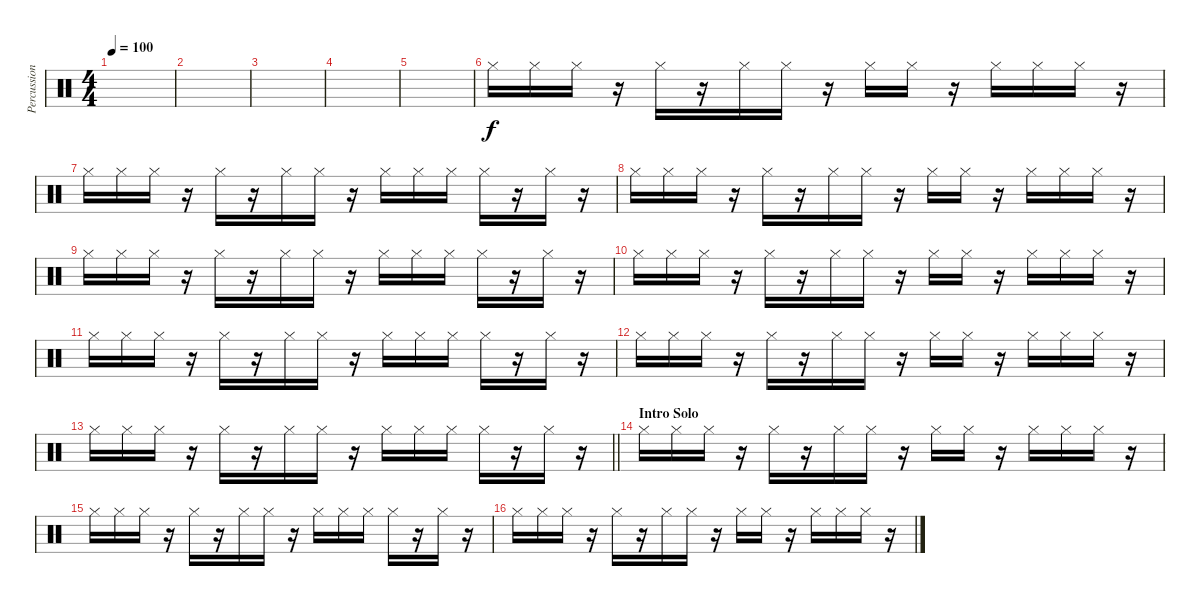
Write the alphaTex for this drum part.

\track ("Percussion" "Percussion") {instrument percussion}
\staff {score}
\articulation defaults
\ts (4 4)
\tempo 100
\clef neutral
\ks c
|
|
|
|
|
"Hi-Hat (closed)".16 "Hi-Hat (closed)".16 "Hi-Hat (closed)".16 r.16 "Hi-Hat (closed)".16 r.16 "Hi-Hat (closed)".16 "Hi-Hat (closed)".16 r.16 "Hi-Hat (closed)".16 "Hi-Hat (closed)".16 r.16 "Hi-Hat (closed)".16 "Hi-Hat (closed)".16 "Hi-Hat (closed)".16 r.16 |
"Hi-Hat (closed)".16 "Hi-Hat (closed)".16 "Hi-Hat (closed)".16 r.16 "Hi-Hat (closed)".16 r.16 "Hi-Hat (closed)".16 "Hi-Hat (closed)".16 r.16 "Hi-Hat (closed)".16 "Hi-Hat (closed)".16 "Hi-Hat (closed)".16 "Hi-Hat (closed)".16 r.16 "Hi-Hat (closed)".16 r.16 |
"Hi-Hat (closed)".16 "Hi-Hat (closed)".16 "Hi-Hat (closed)".16 r.16 "Hi-Hat (closed)".16 r.16 "Hi-Hat (closed)".16 "Hi-Hat (closed)".16 r.16 "Hi-Hat (closed)".16 "Hi-Hat (closed)".16 r.16 "Hi-Hat (closed)".16 "Hi-Hat (closed)".16 "Hi-Hat (closed)".16 r.16 |
"Hi-Hat (closed)".16 "Hi-Hat (closed)".16 "Hi-Hat (closed)".16 r.16 "Hi-Hat (closed)".16 r.16 "Hi-Hat (closed)".16 "Hi-Hat (closed)".16 r.16 "Hi-Hat (closed)".16 "Hi-Hat (closed)".16 "Hi-Hat (closed)".16 "Hi-Hat (closed)".16 r.16 "Hi-Hat (closed)".16 r.16 |
"Hi-Hat (closed)".16 "Hi-Hat (closed)".16 "Hi-Hat (closed)".16 r.16 "Hi-Hat (closed)".16 r.16 "Hi-Hat (closed)".16 "Hi-Hat (closed)".16 r.16 "Hi-Hat (closed)".16 "Hi-Hat (closed)".16 r.16 "Hi-Hat (closed)".16 "Hi-Hat (closed)".16 "Hi-Hat (closed)".16 r.16 |
"Hi-Hat (closed)".16 "Hi-Hat (closed)".16 "Hi-Hat (closed)".16 r.16 "Hi-Hat (closed)".16 r.16 "Hi-Hat (closed)".16 "Hi-Hat (closed)".16 r.16 "Hi-Hat (closed)".16 "Hi-Hat (closed)".16 "Hi-Hat (closed)".16 "Hi-Hat (closed)".16 r.16 "Hi-Hat (closed)".16 r.16 |
"Hi-Hat (closed)".16 "Hi-Hat (closed)".16 "Hi-Hat (closed)".16 r.16 "Hi-Hat (closed)".16 r.16 "Hi-Hat (closed)".16 "Hi-Hat (closed)".16 r.16 "Hi-Hat (closed)".16 "Hi-Hat (closed)".16 r.16 "Hi-Hat (closed)".16 "Hi-Hat (closed)".16 "Hi-Hat (closed)".16 r.16 |
\barLineRight lightlight "Hi-Hat (closed)".16 "Hi-Hat (closed)".16 "Hi-Hat (closed)".16
r.16 "Hi-Hat (closed)".16 r.16 "Hi-Hat (closed)".16 "Hi-Hat (closed)".16 r.16 "Hi-Hat (closed)".16 "Hi-Hat (closed)".16 "Hi-Hat (closed)".16 "Hi-Hat (closed)".16 r.16 "Hi-Hat (closed)".16 r.16 |
\section ("" "Intro Solo")
"Hi-Hat (closed)".16 "Hi-Hat (closed)".16 "Hi-Hat (closed)".16 r.16 "Hi-Hat (closed)".16 r.16 "Hi-Hat (closed)".16 "Hi-Hat (closed)".16 r.16 "Hi-Hat (closed)".16 "Hi-Hat (closed)".16 r.16 "Hi-Hat (closed)".16 "Hi-Hat (closed)".16 "Hi-Hat (closed)".16 r.16 |
"Hi-Hat (closed)".16 "Hi-Hat (closed)".16 "Hi-Hat (closed)".16 r.16 "Hi-Hat (closed)".16 r.16 "Hi-Hat (closed)".16 "Hi-Hat (closed)".16 r.16 "Hi-Hat (closed)".16 "Hi-Hat (closed)".16 "Hi-Hat (closed)".16 "Hi-Hat (closed)".16 r.16 "Hi-Hat (closed)".16 r.16 |
"Hi-Hat (closed)".16 "Hi-Hat (closed)".16 "Hi-Hat (closed)".16 r.16 "Hi-Hat (closed)".16 r.16 "Hi-Hat (closed)".16 "Hi-Hat (closed)".16 r.16 "Hi-Hat (closed)".16 "Hi-Hat (closed)".16 r.16 "Hi-Hat (closed)".16 "Hi-Hat (closed)".16 "Hi-Hat (closed)".16 r.16
